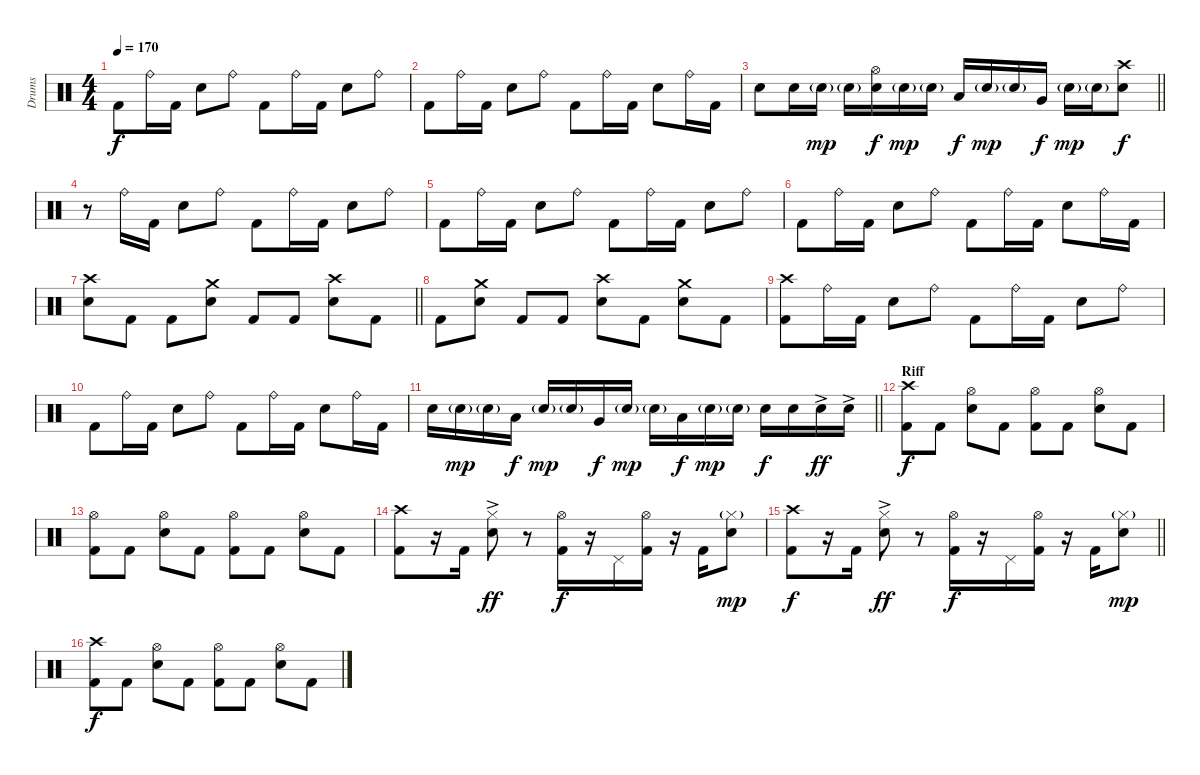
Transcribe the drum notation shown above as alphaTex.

\track ("Drums" "Drums") {instrument percussion}
\staff {score}
\articulation defaults
\ts (4 4)
\tempo 170
\clef neutral
\ks c "Kick (hit) 2".8{dy f} "Ride (bell)".16 "Kick (hit) 2".16 "Snare (hit) 2".8 "Ride (bell)".8 "Kick (hit) 2".8 "Ride (bell)".16 "Kick (hit) 2".16 "Snare (hit) 2".8 "Ride (bell)".8
|
"Kick (hit) 2".8 "Ride (bell)".16 "Kick (hit) 2".16 "Snare (hit) 2".8 "Ride (bell)".8 "Kick (hit) 2".8 "Ride (bell)".16 "Kick (hit) 2".16 "Snare (hit) 2".8 "Ride (bell)".16 "Kick (hit) 2".16 |
\barLineRight lightlight "Snare (hit) 2".8 "Snare (hit) 2".16 "Electric Snare (hit)"{g}.16{dy mp} "Electric Snare (hit)"{g}.16
("Hi-Hat (open)" "Snare (hit) 2").16{dy f} "Electric Snare (hit)"{g}.16{dy mp} "Electric Snare (hit)"{g}.16 "Low Tom (hit)".16{dy f} "Electric Snare (hit)"{g}.16{dy mp} "Electric Snare (hit)"{g}.16 "Very Low Tom (hit)".16{dy f} "Electric Snare (hit)"{g}.16{dy mp} "Electric Snare (hit)"{g}.16 ("Crash high (hit)" "Snare (hit) 2").8{dy f} |
\section ("" "")
r.8 "Ride (bell)".16 "Kick (hit) 2".16 "Snare (hit) 2".8 "Ride (bell)".8 "Kick (hit) 2".8 "Ride (bell)".16 "Kick (hit) 2".16 "Snare (hit) 2".8 "Ride (bell)".8 |
"Kick (hit) 2".8 "Ride (bell)".16 "Kick (hit) 2".16 "Snare (hit) 2".8 "Ride (bell)".8 "Kick (hit) 2".8 "Ride (bell)".16 "Kick (hit) 2".16 "Snare (hit) 2".8 "Ride (bell)".8 |
"Kick (hit) 2".8 "Ride (bell)".16 "Kick (hit) 2".16 "Snare (hit) 2".8 "Ride (bell)".8 "Kick (hit) 2".8 "Ride (bell)".16 "Kick (hit) 2".16 "Snare (hit) 2".8 "Ride (bell)".16 "Kick (hit) 2".16 |
\barLineRight lightlight
("Crash high (hit)" "Snare (hit) 2").8 "Kick (hit) 2".8 "Kick (hit) 2".8 ("Crash medium (hit)" "Snare (hit) 2").8 "Kick (hit) 2".8 "Kick (hit) 2".8 ("Crash high (hit)" "Snare (hit) 2").8 "Kick (hit) 2".8 |
\section ("" "")
"Kick (hit) 2".8 ("Crash medium (hit)" "Snare (hit) 2").8 "Kick (hit) 2".8 "Kick (hit) 2".8 ("Crash high (hit)" "Snare (hit) 2").8 "Kick (hit) 2".8 ("Crash medium (hit)" "Snare (hit) 2").8 "Kick (hit) 2".8 |
("Crash high (hit)" "Kick (hit) 2").8 "Ride (bell)".16 "Kick (hit) 2".16 "Snare (hit) 2".8 "Ride (bell)".8 "Kick (hit) 2".8 "Ride (bell)".16 "Kick (hit) 2".16 "Snare (hit) 2".8 "Ride (bell)".8 |
"Kick (hit) 2".8 "Ride (bell)".16 "Kick (hit) 2".16 "Snare (hit) 2".8 "Ride (bell)".8 "Kick (hit) 2".8 "Ride (bell)".16 "Kick (hit) 2".16 "Snare (hit) 2".8 "Ride (bell)".16 "Kick (hit) 2".16 |
\barLineRight lightlight "Snare (hit) 2".16 "Snare (hit) 2"{g}.16{dy mp} "Electric Snare (hit)"{g}.16 "Low Tom (hit)".16{dy f} "Snare (hit) 2"{g}.16{dy mp} "Electric Snare (hit)"{g}.16 "Very Low Tom (hit)".16{dy f} "Snare (hit) 2"{g}.16{dy mp} "Electric Snare (hit)"{g}.16 "Low Floor Tom (hit)".16{dy f} "Snare (hit) 2"{g}.16{dy mp} "Snare (hit) 2"{g}.16 "Snare (hit) 2".16{dy f} "Snare (hit) 2".16 "Snare (hit) 2"{ac}.16{dy ff} "Snare (hit) 2"{ac}.16
|
\section ("" "Riff")
("Crash high (hit)" "Kick (hit) 2").8{dy f} "Kick (hit) 2".8 ("Hi-Hat (open)" "Snare (hit) 2").8 "Kick (hit) 2".8 ("Hi-Hat (open)" "Kick (hit) 2").8 "Kick (hit) 2".8 ("Hi-Hat (open)" "Snare (hit) 2").8 "Kick (hit) 2".8 |
("Hi-Hat (open)" "Kick (hit) 2").8 "Kick (hit) 2".8 ("Hi-Hat (open)" "Snare (hit) 2").8 "Kick (hit) 2".8 ("Hi-Hat (open)" "Kick (hit) 2").8 "Kick (hit) 2".8 ("Hi-Hat (open)" "Snare (hit) 2").8 "Kick (hit) 2".8 |
("Crash high (hit)" "Kick (hit) 2").8 r.16 "Kick (hit) 2".16 ("Hi-Hat (closed)"{ac} "Snare (hit) 2").8{dy ff} r.8 ("Hi-Hat (open)" "Kick (hit) 2").16{dy f} r.16 "Pedal Hi-Hat (hit)".16 ("Hi-Hat (open)" "Kick (hit) 2").16 r.16 "Kick (hit) 2".16 ("Hi-Hat (closed)"{g} "Snare (hit) 2").8{dy mp} |
\barLineRight lightlight
("Crash high (hit)" "Kick (hit) 2").8{dy f} r.16 "Kick (hit) 2".16 ("Hi-Hat (closed)"{ac} "Snare (hit) 2").8{dy ff} r.8 ("Hi-Hat (open)" "Kick (hit) 2").16{dy f} r.16 "Pedal Hi-Hat (hit)".16 ("Hi-Hat (open)" "Kick (hit) 2").16 r.16 "Kick (hit) 2".16 ("Hi-Hat (closed)"{g} "Snare (hit) 2").8{dy mp} |
\section ("" "")
("Crash high (hit)" "Kick (hit) 2").8{dy f} "Kick (hit) 2".8 ("Hi-Hat (open)" "Snare (hit) 2").8 "Kick (hit) 2".8 ("Hi-Hat (open)" "Kick (hit) 2").8 "Kick (hit) 2".8 ("Hi-Hat (open)" "Snare (hit) 2").8 "Kick (hit) 2".8
